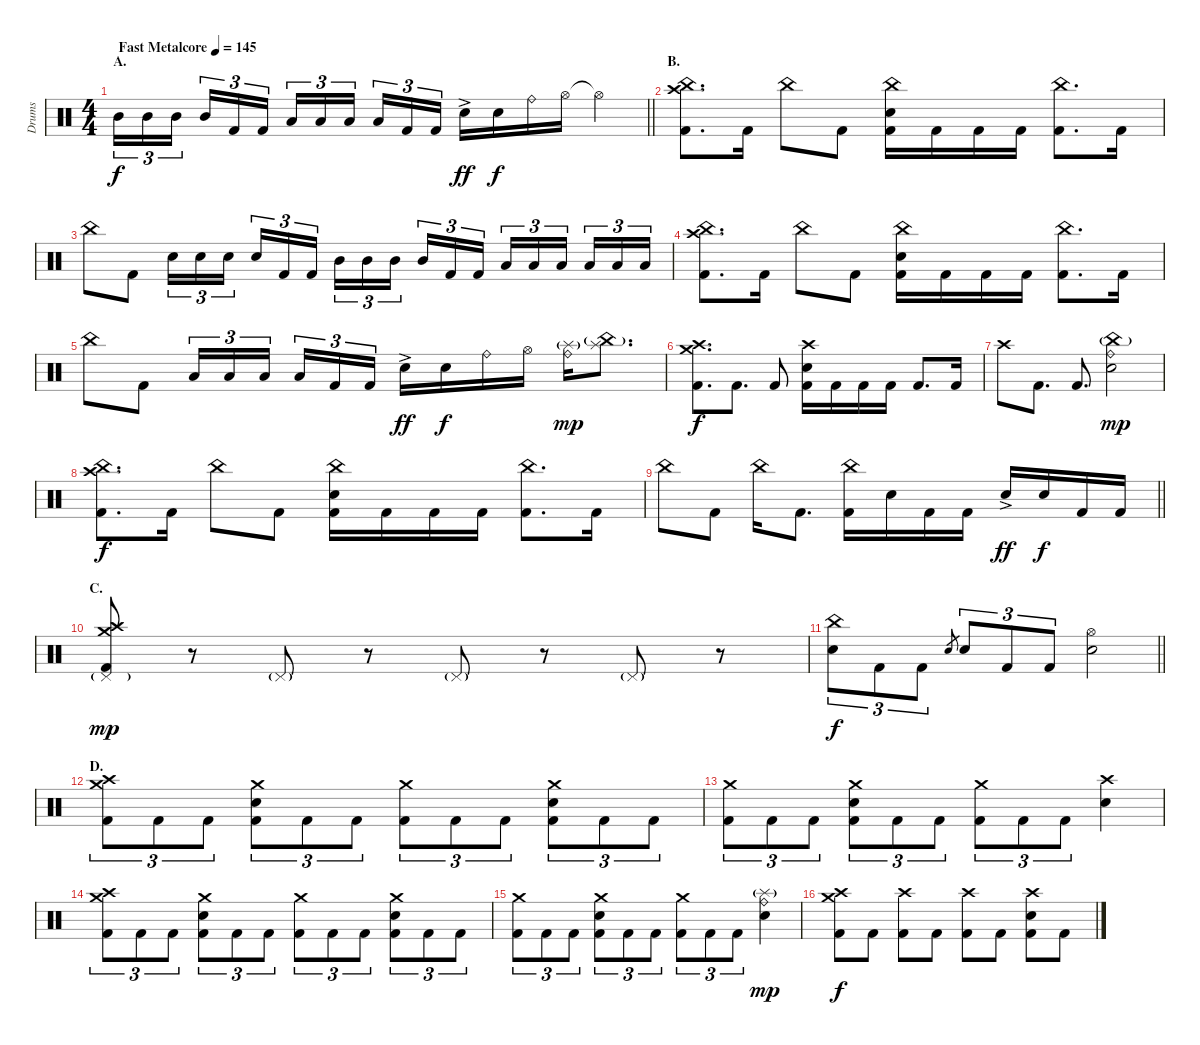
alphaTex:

\track ("Drums" "Drums") {instrument percussion}
\staff {score}
\articulation defaults
\ts (4 4)
\section ("" "A.")
\tempo (145 "Fast Metalcore")
\clef neutral
\barLineRight lightlight
\ks c "Mid Tom (hit)".16{tu (3 2) dy f} "Mid Tom (hit)".16{tu (3 2)} "Mid Tom (hit)".16{tu (3 2) beam splitsecondary} "Mid Tom (hit)".16{tu (3 2)} "Kick (hit) 2".16{tu (3 2)} "Kick (hit) 2".16{tu (3 2)} "Low Tom (hit)".16{tu (3 2)} "Low Tom (hit)".16{tu (3 2)} "Low Tom (hit)".16{tu (3 2) beam splitsecondary} "Low Tom (hit)".16{tu (3 2)} "Kick (hit) 2".16{tu (3 2)} "Kick (hit) 2".16{tu (3 2)} "Electric Snare (hit)"{ac}.16{dy ff} "Electric Snare (hit)".16{dy f} "Ride (bell)".16 "Hi-Hat (open)".16 "Hi-Hat (open)"{t}.4
|
\section ("" "B.")
("China (hit)" "Crash high (hit)" "Kick (hit) 2").8{d} "Kick (hit) 2".16 "China (hit)".8 "Kick (hit) 2".8 ("China (hit)" "Electric Snare (hit)" "Kick (hit) 2").16 "Kick (hit) 2".16 "Kick (hit) 2".16 "Kick (hit) 2".16 ("China (hit)" "Kick (hit) 2").8{d} "Kick (hit) 2".16 |
"China (hit)".8 "Kick (hit) 2".8 "Electric Snare (hit)".16{tu (3 2)} "Electric Snare (hit)".16{tu (3 2)} "Electric Snare (hit)".16{tu (3 2) beam splitsecondary} "Electric Snare (hit)".16{tu (3 2)} "Kick (hit) 2".16{tu (3 2)} "Kick (hit) 2".16{tu (3 2)} "Mid Tom (hit)".16{tu (3 2)} "Mid Tom (hit)".16{tu (3 2)} "Mid Tom (hit)".16{tu (3 2) beam splitsecondary} "Mid Tom (hit)".16{tu (3 2)} "Kick (hit) 2".16{tu (3 2)} "Kick (hit) 2".16{tu (3 2)} "Low Tom (hit)".16{tu (3 2)} "Low Tom (hit)".16{tu (3 2)} "Low Tom (hit)".16{tu (3 2) beam splitsecondary} "Low Tom (hit)".16{tu (3 2)} "Low Tom (hit)".16{tu (3 2)} "Low Tom (hit)".16{tu (3 2)} |
("China (hit)" "Crash high (hit)" "Kick (hit) 2").8{d} "Kick (hit) 2".16 "China (hit)".8 "Kick (hit) 2".8 ("China (hit)" "Electric Snare (hit)" "Kick (hit) 2").16 "Kick (hit) 2".16 "Kick (hit) 2".16 "Kick (hit) 2".16 ("China (hit)" "Kick (hit) 2").8{d} "Kick (hit) 2".16 |
"China (hit)".8 "Kick (hit) 2".8 "Low Tom (hit)".16{tu (3 2)} "Low Tom (hit)".16{tu (3 2)} "Low Tom (hit)".16{tu (3 2) beam splitsecondary} "Low Tom (hit)".16{tu (3 2)} "Kick (hit) 2".16{tu (3 2)} "Kick (hit) 2".16{tu (3 2)} "Electric Snare (hit)"{ac}.16{dy ff} "Electric Snare (hit)".16{dy f} "Ride (bell)".16 "Hi-Hat (open)".16 ("Splash (hit)"{g} "Ride (bell)").16{dy mp} ("China (hit)"{g} "Splash (hit)").8{d} |
("Crash medium (hit)" "Crash high (hit)" "Kick (hit) 2").8{d dy f} "Kick (hit) 2".8{d} "Kick (hit) 2".8 ("Crash high (hit)" "Electric Snare (hit)" "Kick (hit) 2").16 "Kick (hit) 2".16 "Kick (hit) 2".16 "Kick (hit) 2".16 "Kick (hit) 2".8{d} "Kick (hit) 2".16 |
"Crash high (hit)".8 "Kick (hit) 2".8{d} "Kick (hit) 2".8{d} ("China (hit)"{g} "Ride (bell)" "Electric Snare (hit)").2{dy mp} |
("China (hit)" "Crash high (hit)" "Kick (hit) 2").8{d dy f} "Kick (hit) 2".16 "China (hit)".8 "Kick (hit) 2".8 ("China (hit)" "Electric Snare (hit)" "Kick (hit) 2").16 "Kick (hit) 2".16 "Kick (hit) 2".16 "Kick (hit) 2".16 ("China (hit)" "Kick (hit) 2").8{d} "Kick (hit) 2".16 |
\barLineRight lightlight "China (hit)".8 "Kick (hit) 2".8 "China (hit)".16 "Kick (hit) 2".8{d}
("China (hit)" "Kick (hit) 2").16 "Electric Snare (hit)".16 "Kick (hit) 2".16 "Kick (hit) 2".16 "Electric Snare (hit)"{ac}.16{dy ff} "Electric Snare (hit)".16{dy f} "Kick (hit) 2".16 "Kick (hit) 2".16 |
\section ("" "C.")
("Crash medium (hit)" "Crash high (hit)" "Pedal Hi-Hat (hit)"{g} "Kick (hit) 2").8{dy mp} r.8 "Pedal Hi-Hat (hit)"{g}.8 r.8 "Pedal Hi-Hat (hit)"{g}.8 r.8 "Pedal Hi-Hat (hit)"{g}.8 r.8 |
\barLineRight lightlight
("China (hit)" "Electric Snare (hit)").8{tu (3 2) dy f} "Kick (hit) 2".8{tu (3 2)} "Kick (hit) 2".8{tu (3 2)} "Electric Snare (hit)".8{gr} "Electric Snare (hit)".8{tu (3 2)} "Kick (hit) 2".8{tu (3 2)} "Kick (hit) 2".8{tu (3 2)} ("Hi-Hat (open)" "Electric Snare (hit)").2 |
\section ("" "D.")
("Crash medium (hit)" "Crash high (hit)" "Kick (hit) 2").8{tu (3 2)} "Kick (hit) 2".8{tu (3 2)} "Kick (hit) 2".8{tu (3 2)} ("Crash medium (hit)" "Electric Snare (hit)" "Kick (hit) 2").8{tu (3 2)} "Kick (hit) 2".8{tu (3 2)} "Kick (hit) 2".8{tu (3 2)} ("Crash medium (hit)" "Kick (hit) 2").8{tu (3 2)} "Kick (hit) 2".8{tu (3 2)} "Kick (hit) 2".8{tu (3 2)} ("Crash medium (hit)" "Electric Snare (hit)" "Kick (hit) 2").8{tu (3 2)} "Kick (hit) 2".8{tu (3 2)} "Kick (hit) 2".8{tu (3 2)} |
("Crash medium (hit)" "Kick (hit) 2").8{tu (3 2)} "Kick (hit) 2".8{tu (3 2)} "Kick (hit) 2".8{tu (3 2)} ("Crash medium (hit)" "Electric Snare (hit)" "Kick (hit) 2").8{tu (3 2)} "Kick (hit) 2".8{tu (3 2)} "Kick (hit) 2".8{tu (3 2)} ("Crash medium (hit)" "Kick (hit) 2").8{tu (3 2)} "Kick (hit) 2".8{tu (3 2)} "Kick (hit) 2".8{tu (3 2)} ("Crash high (hit)" "Electric Snare (hit)").4 |
("Crash medium (hit)" "Crash high (hit)" "Kick (hit) 2").8{tu (3 2)} "Kick (hit) 2".8{tu (3 2)} "Kick (hit) 2".8{tu (3 2)} ("Crash medium (hit)" "Electric Snare (hit)" "Kick (hit) 2").8{tu (3 2)} "Kick (hit) 2".8{tu (3 2)} "Kick (hit) 2".8{tu (3 2)} ("Crash medium (hit)" "Kick (hit) 2").8{tu (3 2)} "Kick (hit) 2".8{tu (3 2)} "Kick (hit) 2".8{tu (3 2)} ("Crash medium (hit)" "Electric Snare (hit)" "Kick (hit) 2").8{tu (3 2)} "Kick (hit) 2".8{tu (3 2)} "Kick (hit) 2".8{tu (3 2)} |
("Crash medium (hit)" "Kick (hit) 2").8{tu (3 2)} "Kick (hit) 2".8{tu (3 2)} "Kick (hit) 2".8{tu (3 2)} ("Crash medium (hit)" "Electric Snare (hit)" "Kick (hit) 2").8{tu (3 2)} "Kick (hit) 2".8{tu (3 2)} "Kick (hit) 2".8{tu (3 2)} ("Crash medium (hit)" "Kick (hit) 2").8{tu (3 2)} "Kick (hit) 2".8{tu (3 2)} "Kick (hit) 2".8{tu (3 2)} ("Splash (hit)"{g} "Ride (bell)" "Electric Snare (hit)").4{dy mp} |
("Crash medium (hit)" "Crash high (hit)" "Kick (hit) 2").8{dy f} "Kick (hit) 2".8 ("Crash high (hit)" "Kick (hit) 2").8 "Kick (hit) 2".8 ("Crash high (hit)" "Kick (hit) 2").8 "Kick (hit) 2".8 ("Crash high (hit)" "Electric Snare (hit)" "Kick (hit) 2").8 "Kick (hit) 2".8
